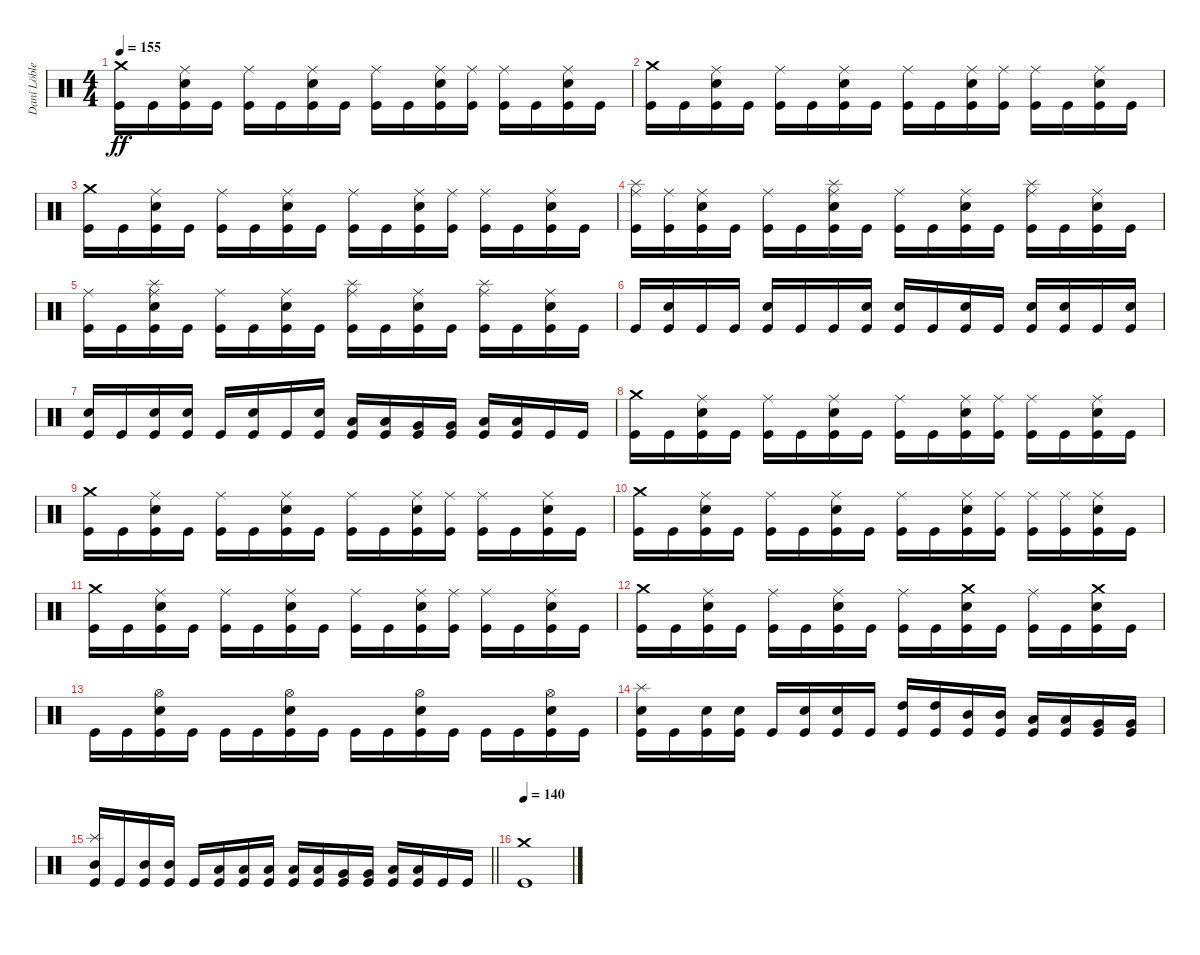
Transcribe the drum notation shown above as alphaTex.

\track ("Dani Löble" "Dani Löble") {instrument percussion}
\staff {score}
\articulation defaults
\ts (4 4)
\tempo 155
\clef neutral
\ks c
("Crash medium (hit)" "Kick (hit)").16{dy ff} "Kick (hit)".16 ("Ride (middle)" "Electric Snare (hit)" "Kick (hit)").16 "Kick (hit)".16 ("Ride (middle)" "Kick (hit)").16 "Kick (hit)".16 ("Ride (middle)" "Electric Snare (hit)" "Kick (hit)").16 "Kick (hit)".16 ("Ride (middle)" "Kick (hit)").16 "Kick (hit)".16 ("Ride (middle)" "Electric Snare (hit)" "Kick (hit)").16 ("Ride (middle)" "Kick (hit)").16 ("Ride (middle)" "Kick (hit)").16 "Kick (hit)".16 ("Ride (middle)" "Electric Snare (hit)" "Kick (hit)").16 "Kick (hit)".16 |
("Crash medium (hit)" "Kick (hit)").16 "Kick (hit)".16 ("Ride (middle)" "Electric Snare (hit)" "Kick (hit)").16 "Kick (hit)".16 ("Ride (middle)" "Kick (hit)").16 "Kick (hit)".16 ("Ride (middle)" "Electric Snare (hit)" "Kick (hit)").16 "Kick (hit)".16 ("Ride (middle)" "Kick (hit)").16 "Kick (hit)".16 ("Ride (middle)" "Electric Snare (hit)" "Kick (hit)").16 ("Ride (middle)" "Kick (hit)").16 ("Ride (middle)" "Kick (hit)").16 "Kick (hit)".16 ("Ride (middle)" "Electric Snare (hit)" "Kick (hit)").16 "Kick (hit)".16 |
("Crash medium (hit)" "Kick (hit)").16 "Kick (hit)".16 ("Ride (middle)" "Electric Snare (hit)" "Kick (hit)").16 "Kick (hit)".16 ("Ride (middle)" "Kick (hit)").16 "Kick (hit)".16 ("Ride (middle)" "Electric Snare (hit)" "Kick (hit)").16 "Kick (hit)".16 ("Ride (middle)" "Kick (hit)").16 "Kick (hit)".16 ("Ride (middle)" "Electric Snare (hit)" "Kick (hit)").16 ("Ride (middle)" "Kick (hit)").16 ("Ride (middle)" "Kick (hit)").16 "Kick (hit)".16 ("Ride (middle)" "Electric Snare (hit)" "Kick (hit)").16 "Kick (hit)".16 |
("Ride (middle)" "Splash (hit)" "Kick (hit)").16 ("Ride (middle)" "Kick (hit)").16 ("Ride (middle)" "Electric Snare (hit)" "Kick (hit)").16 "Kick (hit)".16 ("Ride (middle)" "Kick (hit)").16 "Kick (hit)".16 ("Ride (middle)" "Splash (hit)" "Electric Snare (hit)" "Kick (hit)").16 "Kick (hit)".16 ("Ride (middle)" "Kick (hit)").16 "Kick (hit)".16 ("Ride (middle)" "Electric Snare (hit)" "Kick (hit)").16 "Kick (hit)".16 ("Ride (middle)" "Splash (hit)" "Kick (hit)").16 "Kick (hit)".16 ("Ride (middle)" "Electric Snare (hit)" "Kick (hit)").16 "Kick (hit)".16 |
("Ride (middle)" "Kick (hit)").16 "Kick (hit)".16 ("Ride (middle)" "Splash (hit)" "Electric Snare (hit)" "Kick (hit)").16 "Kick (hit)".16 ("Ride (middle)" "Kick (hit)").16 "Kick (hit)".16 ("Ride (middle)" "Electric Snare (hit)" "Kick (hit)").16 "Kick (hit)".16 ("Ride (middle)" "Splash (hit)" "Kick (hit)").16 "Kick (hit)".16 ("Ride (middle)" "Electric Snare (hit)" "Kick (hit)").16 "Kick (hit)".16 ("Ride (middle)" "Splash (hit)" "Kick (hit)").16 "Kick (hit)".16 ("Ride (middle)" "Electric Snare (hit)" "Kick (hit)").16 "Kick (hit)".16 |
"Kick (hit)".16 ("Electric Snare (hit)" "Kick (hit)").16 "Kick (hit)".16 "Kick (hit)".16 ("Electric Snare (hit)" "Kick (hit)").16 "Kick (hit)".16 "Kick (hit)".16 ("Electric Snare (hit)" "Kick (hit)").16 ("Electric Snare (hit)" "Kick (hit)").16 "Kick (hit)".16 ("Electric Snare (hit)" "Kick (hit)").16 "Kick (hit)".16 ("Electric Snare (hit)" "Kick (hit)").16 ("Electric Snare (hit)" "Kick (hit)").16 "Kick (hit)".16 ("Electric Snare (hit)" "Kick (hit)").16 |
("Electric Snare (hit)" "Kick (hit)").16 "Kick (hit)".16 ("Electric Snare (hit)" "Kick (hit)").16 ("Electric Snare (hit)" "Kick (hit)").16 "Kick (hit)".16 ("Electric Snare (hit)" "Kick (hit)").16 "Kick (hit)".16 ("Electric Snare (hit)" "Kick (hit)").16 ("Low Tom (hit)" "Kick (hit)").16 ("Low Tom (hit)" "Kick (hit)").16 ("Very Low Tom (hit)" "Kick (hit)").16 ("Very Low Tom (hit)" "Kick (hit)").16 ("Low Floor Tom (hit)" "Kick (hit)").16 ("Low Floor Tom (hit)" "Kick (hit)").16 "Kick (hit)".16 "Kick (hit)".16 |
("Crash medium (hit)" "Kick (hit)").16 "Kick (hit)".16 ("Ride (middle)" "Electric Snare (hit)" "Kick (hit)").16 "Kick (hit)".16 ("Ride (middle)" "Kick (hit)").16 "Kick (hit)".16 ("Ride (middle)" "Electric Snare (hit)" "Kick (hit)").16 "Kick (hit)".16 ("Ride (middle)" "Kick (hit)").16 "Kick (hit)".16 ("Ride (middle)" "Electric Snare (hit)" "Kick (hit)").16 ("Ride (middle)" "Kick (hit)").16 ("Ride (middle)" "Kick (hit)").16 "Kick (hit)".16 ("Ride (middle)" "Electric Snare (hit)" "Kick (hit)").16 "Kick (hit)".16 |
("Crash medium (hit)" "Kick (hit)").16 "Kick (hit)".16 ("Ride (middle)" "Electric Snare (hit)" "Kick (hit)").16 "Kick (hit)".16 ("Ride (middle)" "Kick (hit)").16 "Kick (hit)".16 ("Ride (middle)" "Electric Snare (hit)" "Kick (hit)").16 "Kick (hit)".16 ("Ride (middle)" "Kick (hit)").16 "Kick (hit)".16 ("Ride (middle)" "Electric Snare (hit)" "Kick (hit)").16 ("Ride (middle)" "Kick (hit)").16 ("Ride (middle)" "Kick (hit)").16 "Kick (hit)".16 ("Ride (middle)" "Electric Snare (hit)" "Kick (hit)").16 "Kick (hit)".16 |
("Crash medium (hit)" "Kick (hit)").16 "Kick (hit)".16 ("Ride (middle)" "Electric Snare (hit)" "Kick (hit)").16 "Kick (hit)".16 ("Ride (middle)" "Kick (hit)").16 "Kick (hit)".16 ("Ride (middle)" "Electric Snare (hit)" "Kick (hit)").16 "Kick (hit)".16 ("Ride (middle)" "Kick (hit)").16 "Kick (hit)".16 ("Ride (middle)" "Electric Snare (hit)" "Kick (hit)").16 ("Ride (middle)" "Kick (hit)").16 ("Ride (middle)" "Kick (hit)").16 ("Ride (middle)" "Kick (hit)").16 ("Ride (middle)" "Electric Snare (hit)" "Kick (hit)").16 "Kick (hit)".16 |
("Crash medium (hit)" "Kick (hit)").16 "Kick (hit)".16 ("Ride (middle)" "Electric Snare (hit)" "Kick (hit)").16 "Kick (hit)".16 ("Ride (middle)" "Kick (hit)").16 "Kick (hit)".16 ("Ride (middle)" "Electric Snare (hit)" "Kick (hit)").16 "Kick (hit)".16 ("Ride (middle)" "Kick (hit)").16 "Kick (hit)".16 ("Ride (middle)" "Electric Snare (hit)" "Kick (hit)").16 ("Ride (middle)" "Kick (hit)").16 ("Ride (middle)" "Kick (hit)").16 "Kick (hit)".16 ("Ride (middle)" "Electric Snare (hit)" "Kick (hit)").16 "Kick (hit)".16 |
("Crash medium (hit)" "Kick (hit)").16 "Kick (hit)".16 ("Ride (middle)" "Electric Snare (hit)" "Kick (hit)").16 "Kick (hit)".16 ("Ride (middle)" "Kick (hit)").16 "Kick (hit)".16 ("Ride (middle)" "Electric Snare (hit)" "Kick (hit)").16 "Kick (hit)".16 ("Ride (middle)" "Kick (hit)").16 "Kick (hit)".16 ("Crash medium (hit)" "Electric Snare (hit)" "Kick (hit)").16 "Kick (hit)".16 ("Ride (middle)" "Kick (hit)").16 "Kick (hit)".16 ("Crash medium (hit)" "Electric Snare (hit)" "Kick (hit)").16 "Kick (hit)".16 |
"Kick (hit)".16 "Kick (hit)".16 ("Hi-Hat (open)" "Electric Snare (hit)" "Kick (hit)").16 "Kick (hit)".16 "Kick (hit)".16 "Kick (hit)".16 ("Hi-Hat (open)" "Electric Snare (hit)" "Kick (hit)").16 "Kick (hit)".16 "Kick (hit)".16 "Kick (hit)".16 ("Hi-Hat (open)" "Electric Snare (hit)" "Kick (hit)").16 "Kick (hit)".16 "Kick (hit)".16 "Kick (hit)".16 ("Hi-Hat (open)" "Electric Snare (hit)" "Kick (hit)").16 "Kick (hit)".16 |
("Splash (hit)" "Electric Snare (hit)" "Kick (hit)").16 "Kick (hit)".16 ("Electric Snare (hit)" "Kick (hit)").16 ("Electric Snare (hit)" "Kick (hit)").16 "Kick (hit)".16 ("Electric Snare (hit)" "Kick (hit)").16 ("Electric Snare (hit)" "Kick (hit)").16 "Kick (hit)".16 ("High Tom (hit)" "Kick (hit)").16 ("High Tom (hit)" "Kick (hit)").16 ("Mid Tom (hit)" "Kick (hit)").16 ("Mid Tom (hit)" "Kick (hit)").16 ("Low Tom (hit)" "Kick (hit)").16 ("Low Tom (hit)" "Kick (hit)").16 ("Very Low Tom (hit)" "Kick (hit)").16 ("Very Low Tom (hit)" "Kick (hit)").16 |
\barLineRight lightlight
("Splash (hit)" "Mid Tom (hit)" "Kick (hit)").16 "Kick (hit)".16 ("Mid Tom (hit)" "Kick (hit)").16 ("Mid Tom (hit)" "Kick (hit)").16 "Kick (hit)".16 ("Low Tom (hit)" "Kick (hit)").16 ("Low Tom (hit)" "Kick (hit)").16 ("Low Tom (hit)" "Kick (hit)").16 ("Low Tom (hit)" "Kick (hit)").16 ("Low Tom (hit)" "Kick (hit)").16 ("Very Low Tom (hit)" "Kick (hit)").16 ("Very Low Tom (hit)" "Kick (hit)").16 ("Low Floor Tom (hit)" "Kick (hit)").16 ("Low Floor Tom (hit)" "Kick (hit)").16 "Kick (hit)".16 "Kick (hit)".16 |
\section ("" "")
\tempo 140
("Crash medium (hit)" "Kick (hit)").1
